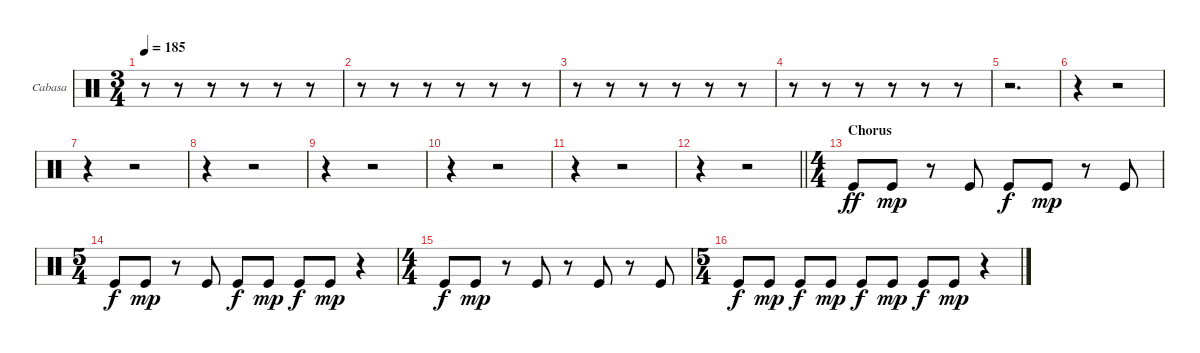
\bracketExtendMode groupsimilarinstruments
\firstSystemTrackNameOrientation horizontal
\otherSystemsTrackNameOrientation horizontal
\track ("Cabasa" "Cabasa") {instrument percussion}
\staff {score}
\articulation defaults
\ts (3 4)
\tempo 185
\clef neutral
\ks c
r.8{dy mp} r.8 r.8 r.8 r.8 r.8 |
r.8 r.8 r.8 r.8 r.8 r.8 |
r.8 r.8 r.8 r.8 r.8 r.8 |
r.8 r.8 r.8 r.8 r.8 r.8 |
r.2{d} |
r.4 r.2 |
r.4 r.2 |
r.4 r.2 |
r.4 r.2 |
r.4 r.2 |
r.4 r.2 |
\barLineRight lightlight
r.4 r.2 |
\ts (4 4)
\beaming (8 2 2 2 2)
\section ("" "Chorus")
"Kick (hit)".8{dy ff} "Kick (hit)".8{dy mp} r.8 "Kick (hit)".8 "Kick (hit)".8{dy f} "Kick (hit)".8{dy mp} r.8 "Kick (hit)".8 |
\ts (5 4)
\beaming (8 2 2 2 4)
"Kick (hit)".8{dy f} "Kick (hit)".8{dy mp} r.8 "Kick (hit)".8 "Kick (hit)".8{dy f} "Kick (hit)".8{dy mp} "Kick (hit)".8{dy f} "Kick (hit)".8{dy mp} r.4 |
\ts (4 4)
\beaming (8 2 2 2 2)
"Kick (hit)".8{dy f} "Kick (hit)".8{dy mp} r.8 "Kick (hit)".8 r.8 "Kick (hit)".8 r.8 "Kick (hit)".8 |
\ts (5 4)
\beaming (8 2 2 2 4)
"Kick (hit)".8{dy f} "Kick (hit)".8{dy mp} "Kick (hit)".8{dy f} "Kick (hit)".8{dy mp} "Kick (hit)".8{dy f} "Kick (hit)".8{dy mp} "Kick (hit)".8{dy f} "Kick (hit)".8{dy mp} r.4
